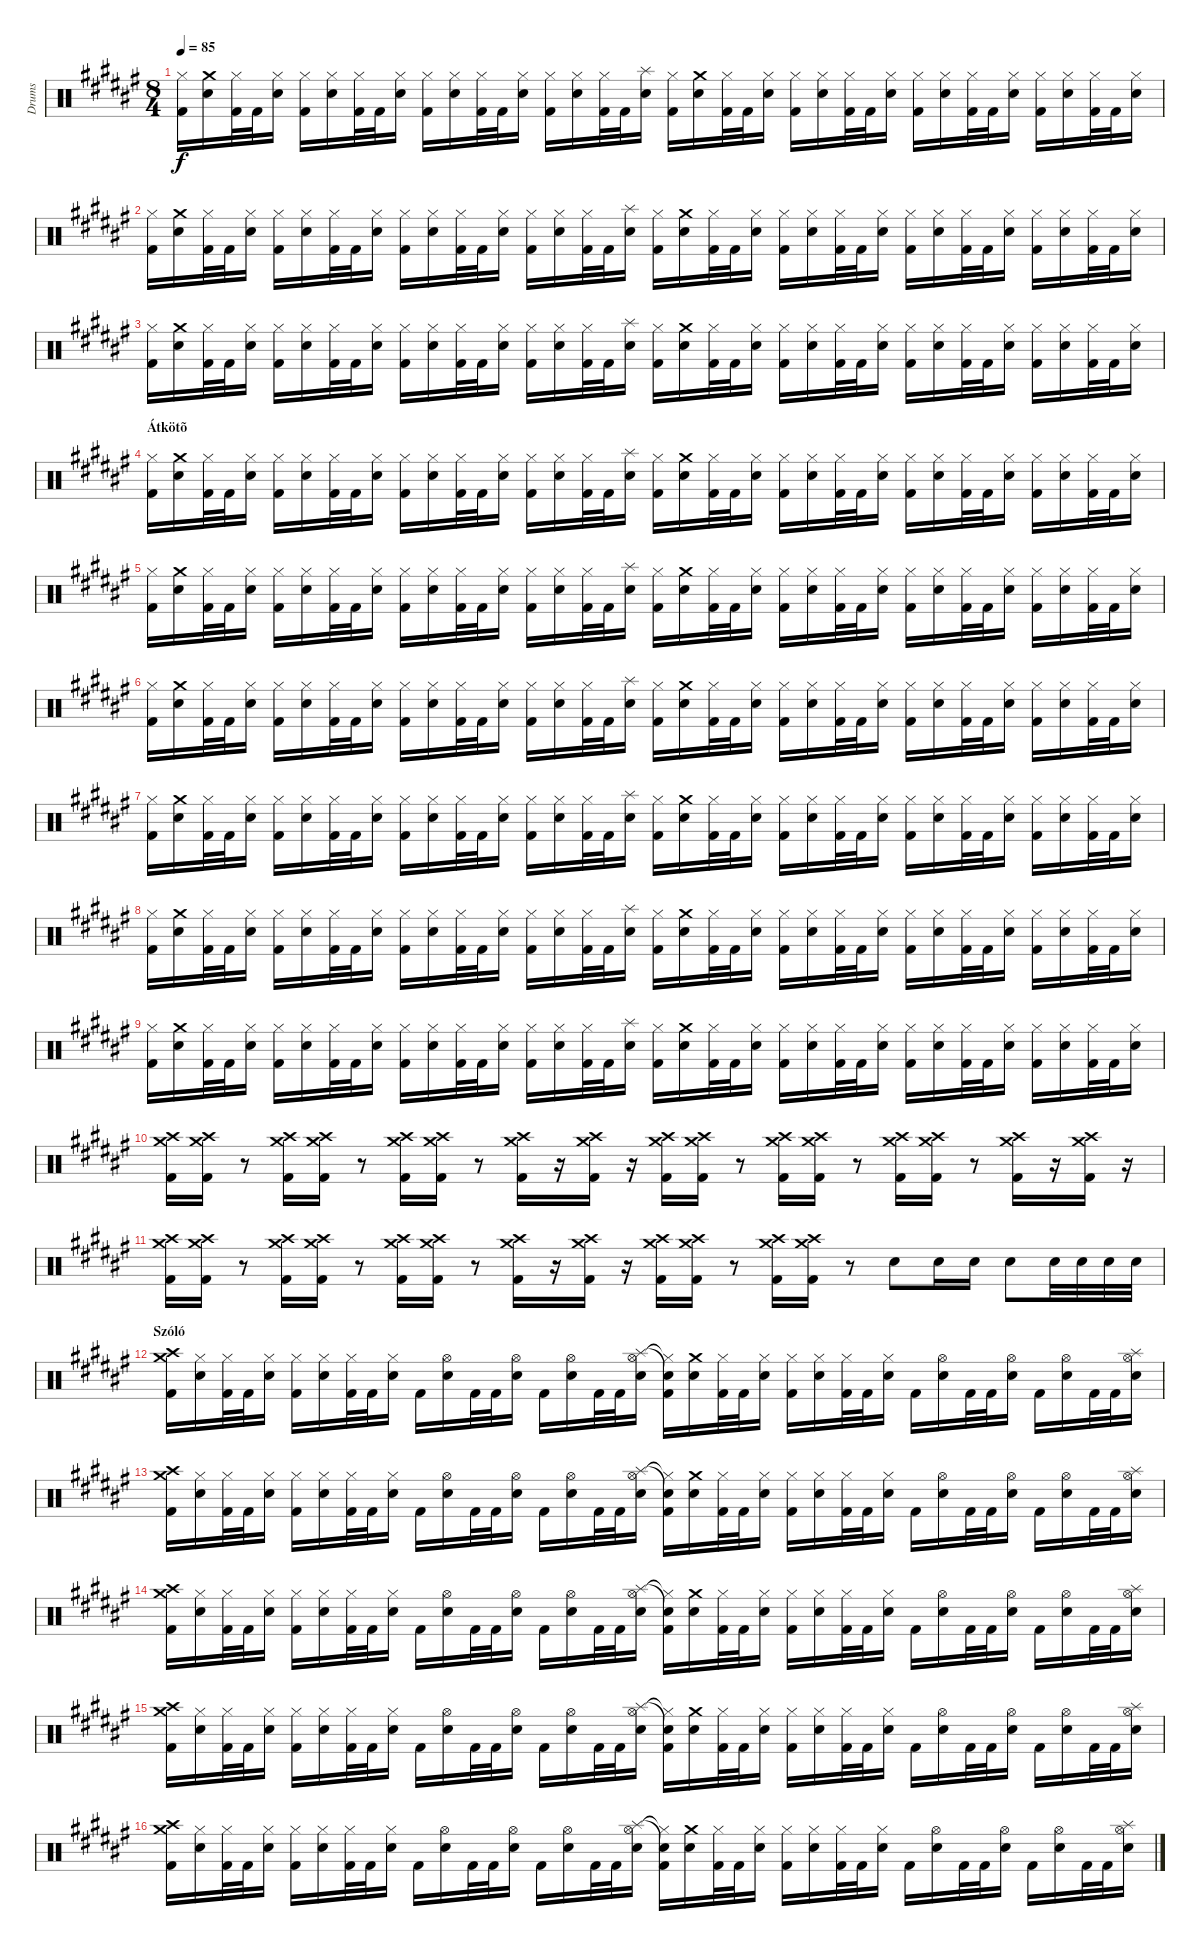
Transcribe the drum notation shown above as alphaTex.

\track ("Drums" "Drums") {instrument percussion}
\staff {score}
\articulation defaults
\ts (8 4)
\tempo 85
\clef neutral
\ks d#minor
("Hi-Hat (closed)" "Kick (hit) 2").16{dy f} ("Crash medium (hit)" "Snare (hit) 2").16 ("Hi-Hat (closed)" "Kick (hit) 2").32 "Kick (hit) 2".32 ("Hi-Hat (closed)" "Snare (hit) 2").16 ("Hi-Hat (closed)" "Kick (hit) 2").16 ("Hi-Hat (closed)" "Snare (hit) 2").16 ("Hi-Hat (closed)" "Kick (hit) 2").32 "Kick (hit) 2".32 ("Hi-Hat (closed)" "Snare (hit) 2").16 ("Hi-Hat (closed)" "Kick (hit) 2").16 ("Hi-Hat (closed)" "Snare (hit) 2").16 ("Hi-Hat (closed)" "Kick (hit) 2").32 "Kick (hit) 2".32 ("Hi-Hat (closed)" "Snare (hit) 2").16 ("Hi-Hat (closed)" "Kick (hit) 2").16 ("Hi-Hat (closed)" "Snare (hit) 2").16 ("Hi-Hat (closed)" "Kick (hit) 2").32 "Kick (hit) 2".32 ("Splash (hit)" "Snare (hit) 2").16 ("Hi-Hat (closed)" "Kick (hit) 2").16 ("Crash medium (hit)" "Snare (hit) 2").16 ("Hi-Hat (closed)" "Kick (hit) 2").32 "Kick (hit) 2".32 ("Hi-Hat (closed)" "Snare (hit) 2").16 ("Hi-Hat (closed)" "Kick (hit) 2").16 ("Hi-Hat (closed)" "Snare (hit) 2").16 ("Hi-Hat (closed)" "Kick (hit) 2").32 "Kick (hit) 2".32 ("Hi-Hat (closed)" "Snare (hit) 2").16 ("Hi-Hat (closed)" "Kick (hit) 2").16 ("Hi-Hat (closed)" "Snare (hit) 2").16 ("Hi-Hat (closed)" "Kick (hit) 2").32 "Kick (hit) 2".32 ("Hi-Hat (closed)" "Snare (hit) 2").16 ("Hi-Hat (closed)" "Kick (hit) 2").16 ("Hi-Hat (closed)" "Snare (hit) 2").16 ("Hi-Hat (closed)" "Kick (hit) 2").32 "Kick (hit) 2".32 ("Hi-Hat (closed)" "Snare (hit) 2").16 |
("Hi-Hat (closed)" "Kick (hit) 2").16 ("Crash medium (hit)" "Snare (hit) 2").16 ("Hi-Hat (closed)" "Kick (hit) 2").32 "Kick (hit) 2".32 ("Hi-Hat (closed)" "Snare (hit) 2").16 ("Hi-Hat (closed)" "Kick (hit) 2").16 ("Hi-Hat (closed)" "Snare (hit) 2").16 ("Hi-Hat (closed)" "Kick (hit) 2").32 "Kick (hit) 2".32 ("Hi-Hat (closed)" "Snare (hit) 2").16 ("Hi-Hat (closed)" "Kick (hit) 2").16 ("Hi-Hat (closed)" "Snare (hit) 2").16 ("Hi-Hat (closed)" "Kick (hit) 2").32 "Kick (hit) 2".32 ("Hi-Hat (closed)" "Snare (hit) 2").16 ("Hi-Hat (closed)" "Kick (hit) 2").16 ("Hi-Hat (closed)" "Snare (hit) 2").16 ("Hi-Hat (closed)" "Kick (hit) 2").32 "Kick (hit) 2".32 ("Splash (hit)" "Snare (hit) 2").16 ("Hi-Hat (closed)" "Kick (hit) 2").16 ("Crash medium (hit)" "Snare (hit) 2").16 ("Hi-Hat (closed)" "Kick (hit) 2").32 "Kick (hit) 2".32 ("Hi-Hat (closed)" "Snare (hit) 2").16 ("Hi-Hat (closed)" "Kick (hit) 2").16 ("Hi-Hat (closed)" "Snare (hit) 2").16 ("Hi-Hat (closed)" "Kick (hit) 2").32 "Kick (hit) 2".32 ("Hi-Hat (closed)" "Snare (hit) 2").16 ("Hi-Hat (closed)" "Kick (hit) 2").16 ("Hi-Hat (closed)" "Snare (hit) 2").16 ("Hi-Hat (closed)" "Kick (hit) 2").32 "Kick (hit) 2".32 ("Hi-Hat (closed)" "Snare (hit) 2").16 ("Hi-Hat (closed)" "Kick (hit) 2").16 ("Hi-Hat (closed)" "Snare (hit) 2").16 ("Hi-Hat (closed)" "Kick (hit) 2").32 "Kick (hit) 2".32 ("Hi-Hat (closed)" "Snare (hit) 2").16 |
("Hi-Hat (closed)" "Kick (hit) 2").16 ("Crash medium (hit)" "Snare (hit) 2").16 ("Hi-Hat (closed)" "Kick (hit) 2").32 "Kick (hit) 2".32 ("Hi-Hat (closed)" "Snare (hit) 2").16 ("Hi-Hat (closed)" "Kick (hit) 2").16 ("Hi-Hat (closed)" "Snare (hit) 2").16 ("Hi-Hat (closed)" "Kick (hit) 2").32 "Kick (hit) 2".32 ("Hi-Hat (closed)" "Snare (hit) 2").16 ("Hi-Hat (closed)" "Kick (hit) 2").16 ("Hi-Hat (closed)" "Snare (hit) 2").16 ("Hi-Hat (closed)" "Kick (hit) 2").32 "Kick (hit) 2".32 ("Hi-Hat (closed)" "Snare (hit) 2").16 ("Hi-Hat (closed)" "Kick (hit) 2").16 ("Hi-Hat (closed)" "Snare (hit) 2").16 ("Hi-Hat (closed)" "Kick (hit) 2").32 "Kick (hit) 2".32 ("Splash (hit)" "Snare (hit) 2").16 ("Hi-Hat (closed)" "Kick (hit) 2").16 ("Crash medium (hit)" "Snare (hit) 2").16 ("Hi-Hat (closed)" "Kick (hit) 2").32 "Kick (hit) 2".32 ("Hi-Hat (closed)" "Snare (hit) 2").16 ("Hi-Hat (closed)" "Kick (hit) 2").16 ("Hi-Hat (closed)" "Snare (hit) 2").16 ("Hi-Hat (closed)" "Kick (hit) 2").32 "Kick (hit) 2".32 ("Hi-Hat (closed)" "Snare (hit) 2").16 ("Hi-Hat (closed)" "Kick (hit) 2").16 ("Hi-Hat (closed)" "Snare (hit) 2").16 ("Hi-Hat (closed)" "Kick (hit) 2").32 "Kick (hit) 2".32 ("Hi-Hat (closed)" "Snare (hit) 2").16 ("Hi-Hat (closed)" "Kick (hit) 2").16 ("Hi-Hat (closed)" "Snare (hit) 2").16 ("Hi-Hat (closed)" "Kick (hit) 2").32 "Kick (hit) 2".32 ("Hi-Hat (closed)" "Snare (hit) 2").16 |
\section ("" "Átkötõ")
("Hi-Hat (closed)" "Kick (hit) 2").16 ("Crash medium (hit)" "Snare (hit) 2").16 ("Hi-Hat (closed)" "Kick (hit) 2").32 "Kick (hit) 2".32 ("Hi-Hat (closed)" "Snare (hit) 2").16 ("Hi-Hat (closed)" "Kick (hit) 2").16 ("Hi-Hat (closed)" "Snare (hit) 2").16 ("Hi-Hat (closed)" "Kick (hit) 2").32 "Kick (hit) 2".32 ("Hi-Hat (closed)" "Snare (hit) 2").16 ("Hi-Hat (closed)" "Kick (hit) 2").16 ("Hi-Hat (closed)" "Snare (hit) 2").16 ("Hi-Hat (closed)" "Kick (hit) 2").32 "Kick (hit) 2".32 ("Hi-Hat (closed)" "Snare (hit) 2").16 ("Hi-Hat (closed)" "Kick (hit) 2").16 ("Hi-Hat (closed)" "Snare (hit) 2").16 ("Hi-Hat (closed)" "Kick (hit) 2").32 "Kick (hit) 2".32 ("Splash (hit)" "Snare (hit) 2").16 ("Hi-Hat (closed)" "Kick (hit) 2").16 ("Crash medium (hit)" "Snare (hit) 2").16 ("Hi-Hat (closed)" "Kick (hit) 2").32 "Kick (hit) 2".32 ("Hi-Hat (closed)" "Snare (hit) 2").16 ("Hi-Hat (closed)" "Kick (hit) 2").16 ("Hi-Hat (closed)" "Snare (hit) 2").16 ("Hi-Hat (closed)" "Kick (hit) 2").32 "Kick (hit) 2".32 ("Hi-Hat (closed)" "Snare (hit) 2").16 ("Hi-Hat (closed)" "Kick (hit) 2").16 ("Hi-Hat (closed)" "Snare (hit) 2").16 ("Hi-Hat (closed)" "Kick (hit) 2").32 "Kick (hit) 2".32 ("Hi-Hat (closed)" "Snare (hit) 2").16 ("Hi-Hat (closed)" "Kick (hit) 2").16 ("Hi-Hat (closed)" "Snare (hit) 2").16 ("Hi-Hat (closed)" "Kick (hit) 2").32 "Kick (hit) 2".32 ("Hi-Hat (closed)" "Snare (hit) 2").16 |
("Hi-Hat (closed)" "Kick (hit) 2").16 ("Crash medium (hit)" "Snare (hit) 2").16 ("Hi-Hat (closed)" "Kick (hit) 2").32 "Kick (hit) 2".32 ("Hi-Hat (closed)" "Snare (hit) 2").16 ("Hi-Hat (closed)" "Kick (hit) 2").16 ("Hi-Hat (closed)" "Snare (hit) 2").16 ("Hi-Hat (closed)" "Kick (hit) 2").32 "Kick (hit) 2".32 ("Hi-Hat (closed)" "Snare (hit) 2").16 ("Hi-Hat (closed)" "Kick (hit) 2").16 ("Hi-Hat (closed)" "Snare (hit) 2").16 ("Hi-Hat (closed)" "Kick (hit) 2").32 "Kick (hit) 2".32 ("Hi-Hat (closed)" "Snare (hit) 2").16 ("Hi-Hat (closed)" "Kick (hit) 2").16 ("Hi-Hat (closed)" "Snare (hit) 2").16 ("Hi-Hat (closed)" "Kick (hit) 2").32 "Kick (hit) 2".32 ("Splash (hit)" "Snare (hit) 2").16 ("Hi-Hat (closed)" "Kick (hit) 2").16 ("Crash medium (hit)" "Snare (hit) 2").16 ("Hi-Hat (closed)" "Kick (hit) 2").32 "Kick (hit) 2".32 ("Hi-Hat (closed)" "Snare (hit) 2").16 ("Hi-Hat (closed)" "Kick (hit) 2").16 ("Hi-Hat (closed)" "Snare (hit) 2").16 ("Hi-Hat (closed)" "Kick (hit) 2").32 "Kick (hit) 2".32 ("Hi-Hat (closed)" "Snare (hit) 2").16 ("Hi-Hat (closed)" "Kick (hit) 2").16 ("Hi-Hat (closed)" "Snare (hit) 2").16 ("Hi-Hat (closed)" "Kick (hit) 2").32 "Kick (hit) 2".32 ("Hi-Hat (closed)" "Snare (hit) 2").16 ("Hi-Hat (closed)" "Kick (hit) 2").16 ("Hi-Hat (closed)" "Snare (hit) 2").16 ("Hi-Hat (closed)" "Kick (hit) 2").32 "Kick (hit) 2".32 ("Hi-Hat (closed)" "Snare (hit) 2").16 |
("Hi-Hat (closed)" "Kick (hit) 2").16 ("Crash medium (hit)" "Snare (hit) 2").16 ("Hi-Hat (closed)" "Kick (hit) 2").32 "Kick (hit) 2".32 ("Hi-Hat (closed)" "Snare (hit) 2").16 ("Hi-Hat (closed)" "Kick (hit) 2").16 ("Hi-Hat (closed)" "Snare (hit) 2").16 ("Hi-Hat (closed)" "Kick (hit) 2").32 "Kick (hit) 2".32 ("Hi-Hat (closed)" "Snare (hit) 2").16 ("Hi-Hat (closed)" "Kick (hit) 2").16 ("Hi-Hat (closed)" "Snare (hit) 2").16 ("Hi-Hat (closed)" "Kick (hit) 2").32 "Kick (hit) 2".32 ("Hi-Hat (closed)" "Snare (hit) 2").16 ("Hi-Hat (closed)" "Kick (hit) 2").16 ("Hi-Hat (closed)" "Snare (hit) 2").16 ("Hi-Hat (closed)" "Kick (hit) 2").32 "Kick (hit) 2".32 ("Splash (hit)" "Snare (hit) 2").16 ("Hi-Hat (closed)" "Kick (hit) 2").16 ("Crash medium (hit)" "Snare (hit) 2").16 ("Hi-Hat (closed)" "Kick (hit) 2").32 "Kick (hit) 2".32 ("Hi-Hat (closed)" "Snare (hit) 2").16 ("Hi-Hat (closed)" "Kick (hit) 2").16 ("Hi-Hat (closed)" "Snare (hit) 2").16 ("Hi-Hat (closed)" "Kick (hit) 2").32 "Kick (hit) 2".32 ("Hi-Hat (closed)" "Snare (hit) 2").16 ("Hi-Hat (closed)" "Kick (hit) 2").16 ("Hi-Hat (closed)" "Snare (hit) 2").16 ("Hi-Hat (closed)" "Kick (hit) 2").32 "Kick (hit) 2".32 ("Hi-Hat (closed)" "Snare (hit) 2").16 ("Hi-Hat (closed)" "Kick (hit) 2").16 ("Hi-Hat (closed)" "Snare (hit) 2").16 ("Hi-Hat (closed)" "Kick (hit) 2").32 "Kick (hit) 2".32 ("Hi-Hat (closed)" "Snare (hit) 2").16 |
("Hi-Hat (closed)" "Kick (hit) 2").16 ("Crash medium (hit)" "Snare (hit) 2").16 ("Hi-Hat (closed)" "Kick (hit) 2").32 "Kick (hit) 2".32 ("Hi-Hat (closed)" "Snare (hit) 2").16 ("Hi-Hat (closed)" "Kick (hit) 2").16 ("Hi-Hat (closed)" "Snare (hit) 2").16 ("Hi-Hat (closed)" "Kick (hit) 2").32 "Kick (hit) 2".32 ("Hi-Hat (closed)" "Snare (hit) 2").16 ("Hi-Hat (closed)" "Kick (hit) 2").16 ("Hi-Hat (closed)" "Snare (hit) 2").16 ("Hi-Hat (closed)" "Kick (hit) 2").32 "Kick (hit) 2".32 ("Hi-Hat (closed)" "Snare (hit) 2").16 ("Hi-Hat (closed)" "Kick (hit) 2").16 ("Hi-Hat (closed)" "Snare (hit) 2").16 ("Hi-Hat (closed)" "Kick (hit) 2").32 "Kick (hit) 2".32 ("Splash (hit)" "Snare (hit) 2").16 ("Hi-Hat (closed)" "Kick (hit) 2").16 ("Crash medium (hit)" "Snare (hit) 2").16 ("Hi-Hat (closed)" "Kick (hit) 2").32 "Kick (hit) 2".32 ("Hi-Hat (closed)" "Snare (hit) 2").16 ("Hi-Hat (closed)" "Kick (hit) 2").16 ("Hi-Hat (closed)" "Snare (hit) 2").16 ("Hi-Hat (closed)" "Kick (hit) 2").32 "Kick (hit) 2".32 ("Hi-Hat (closed)" "Snare (hit) 2").16 ("Hi-Hat (closed)" "Kick (hit) 2").16 ("Hi-Hat (closed)" "Snare (hit) 2").16 ("Hi-Hat (closed)" "Kick (hit) 2").32 "Kick (hit) 2".32 ("Hi-Hat (closed)" "Snare (hit) 2").16 ("Hi-Hat (closed)" "Kick (hit) 2").16 ("Hi-Hat (closed)" "Snare (hit) 2").16 ("Hi-Hat (closed)" "Kick (hit) 2").32 "Kick (hit) 2".32 ("Hi-Hat (closed)" "Snare (hit) 2").16 |
("Hi-Hat (closed)" "Kick (hit) 2").16 ("Crash medium (hit)" "Snare (hit) 2").16 ("Hi-Hat (closed)" "Kick (hit) 2").32 "Kick (hit) 2".32 ("Hi-Hat (closed)" "Snare (hit) 2").16 ("Hi-Hat (closed)" "Kick (hit) 2").16 ("Hi-Hat (closed)" "Snare (hit) 2").16 ("Hi-Hat (closed)" "Kick (hit) 2").32 "Kick (hit) 2".32 ("Hi-Hat (closed)" "Snare (hit) 2").16 ("Hi-Hat (closed)" "Kick (hit) 2").16 ("Hi-Hat (closed)" "Snare (hit) 2").16 ("Hi-Hat (closed)" "Kick (hit) 2").32 "Kick (hit) 2".32 ("Hi-Hat (closed)" "Snare (hit) 2").16 ("Hi-Hat (closed)" "Kick (hit) 2").16 ("Hi-Hat (closed)" "Snare (hit) 2").16 ("Hi-Hat (closed)" "Kick (hit) 2").32 "Kick (hit) 2".32 ("Splash (hit)" "Snare (hit) 2").16 ("Hi-Hat (closed)" "Kick (hit) 2").16 ("Crash medium (hit)" "Snare (hit) 2").16 ("Hi-Hat (closed)" "Kick (hit) 2").32 "Kick (hit) 2".32 ("Hi-Hat (closed)" "Snare (hit) 2").16 ("Hi-Hat (closed)" "Kick (hit) 2").16 ("Hi-Hat (closed)" "Snare (hit) 2").16 ("Hi-Hat (closed)" "Kick (hit) 2").32 "Kick (hit) 2".32 ("Hi-Hat (closed)" "Snare (hit) 2").16 ("Hi-Hat (closed)" "Kick (hit) 2").16 ("Hi-Hat (closed)" "Snare (hit) 2").16 ("Hi-Hat (closed)" "Kick (hit) 2").32 "Kick (hit) 2".32 ("Hi-Hat (closed)" "Snare (hit) 2").16 ("Hi-Hat (closed)" "Kick (hit) 2").16 ("Hi-Hat (closed)" "Snare (hit) 2").16 ("Hi-Hat (closed)" "Kick (hit) 2").32 "Kick (hit) 2".32 ("Hi-Hat (closed)" "Snare (hit) 2").16 |
("Hi-Hat (closed)" "Kick (hit) 2").16 ("Crash medium (hit)" "Snare (hit) 2").16 ("Hi-Hat (closed)" "Kick (hit) 2").32 "Kick (hit) 2".32 ("Hi-Hat (closed)" "Snare (hit) 2").16 ("Hi-Hat (closed)" "Kick (hit) 2").16 ("Hi-Hat (closed)" "Snare (hit) 2").16 ("Hi-Hat (closed)" "Kick (hit) 2").32 "Kick (hit) 2".32 ("Hi-Hat (closed)" "Snare (hit) 2").16 ("Hi-Hat (closed)" "Kick (hit) 2").16 ("Hi-Hat (closed)" "Snare (hit) 2").16 ("Hi-Hat (closed)" "Kick (hit) 2").32 "Kick (hit) 2".32 ("Hi-Hat (closed)" "Snare (hit) 2").16 ("Hi-Hat (closed)" "Kick (hit) 2").16 ("Hi-Hat (closed)" "Snare (hit) 2").16 ("Hi-Hat (closed)" "Kick (hit) 2").32 "Kick (hit) 2".32 ("Splash (hit)" "Snare (hit) 2").16 ("Hi-Hat (closed)" "Kick (hit) 2").16 ("Crash medium (hit)" "Snare (hit) 2").16 ("Hi-Hat (closed)" "Kick (hit) 2").32 "Kick (hit) 2".32 ("Hi-Hat (closed)" "Snare (hit) 2").16 ("Hi-Hat (closed)" "Kick (hit) 2").16 ("Hi-Hat (closed)" "Snare (hit) 2").16 ("Hi-Hat (closed)" "Kick (hit) 2").32 "Kick (hit) 2".32 ("Hi-Hat (closed)" "Snare (hit) 2").16 ("Hi-Hat (closed)" "Kick (hit) 2").16 ("Hi-Hat (closed)" "Snare (hit) 2").16 ("Hi-Hat (closed)" "Kick (hit) 2").32 "Kick (hit) 2".32 ("Hi-Hat (closed)" "Snare (hit) 2").16 ("Hi-Hat (closed)" "Kick (hit) 2").16 ("Hi-Hat (closed)" "Snare (hit) 2").16 ("Hi-Hat (closed)" "Kick (hit) 2").32 "Kick (hit) 2".32 ("Hi-Hat (closed)" "Snare (hit) 2").16 |
("Crash medium (hit)" "Crash high (hit)" "Kick (hit) 2").16 ("Crash medium (hit)" "Crash high (hit)" "Kick (hit) 2").16 r.8 ("Crash medium (hit)" "Crash high (hit)" "Kick (hit) 2").16 ("Crash medium (hit)" "Crash high (hit)" "Kick (hit) 2").16 r.8 ("Crash medium (hit)" "Crash high (hit)" "Kick (hit) 2").16 ("Crash medium (hit)" "Crash high (hit)" "Kick (hit) 2").16 r.8 ("Crash medium (hit)" "Crash high (hit)" "Kick (hit) 2").16 r.16 ("Crash medium (hit)" "Crash high (hit)" "Kick (hit) 2").16 r.16 ("Crash medium (hit)" "Crash high (hit)" "Kick (hit) 2").16 ("Crash medium (hit)" "Crash high (hit)" "Kick (hit) 2").16 r.8 ("Crash medium (hit)" "Crash high (hit)" "Kick (hit) 2").16 ("Crash medium (hit)" "Crash high (hit)" "Kick (hit) 2").16 r.8 ("Crash medium (hit)" "Crash high (hit)" "Kick (hit) 2").16 ("Crash medium (hit)" "Crash high (hit)" "Kick (hit) 2").16 r.8 ("Crash medium (hit)" "Crash high (hit)" "Kick (hit) 2").16 r.16 ("Crash medium (hit)" "Crash high (hit)" "Kick (hit) 2").16 r.16 |
("Crash medium (hit)" "Crash high (hit)" "Kick (hit) 2").16 ("Crash medium (hit)" "Crash high (hit)" "Kick (hit) 2").16 r.8 ("Crash medium (hit)" "Crash high (hit)" "Kick (hit) 2").16 ("Crash medium (hit)" "Crash high (hit)" "Kick (hit) 2").16 r.8 ("Crash medium (hit)" "Crash high (hit)" "Kick (hit) 2").16 ("Crash medium (hit)" "Crash high (hit)" "Kick (hit) 2").16 r.8 ("Crash medium (hit)" "Crash high (hit)" "Kick (hit) 2").16 r.16 ("Crash medium (hit)" "Crash high (hit)" "Kick (hit) 2").16 r.16 ("Crash medium (hit)" "Crash high (hit)" "Kick (hit) 2").16 ("Crash medium (hit)" "Crash high (hit)" "Kick (hit) 2").16 r.8 ("Crash medium (hit)" "Crash high (hit)" "Kick (hit) 2").16 ("Crash medium (hit)" "Crash high (hit)" "Kick (hit) 2").16 r.8 "Snare (hit) 2".8 "Snare (hit) 2".16 "Snare (hit) 2".16 "Snare (hit) 2".8 "Snare (hit) 2".32 "Snare (hit) 2".32 "Snare (hit) 2".32 "Snare (hit) 2".32 |
\section ("" "Szóló")
("Crash medium (hit)" "Crash high (hit)" "Kick (hit) 2").16 ("Hi-Hat (closed)" "Snare (hit) 2").16 ("Hi-Hat (closed)" "Kick (hit) 2").32 "Kick (hit) 2".32 ("Hi-Hat (closed)" "Snare (hit) 2").16 ("Hi-Hat (closed)" "Kick (hit) 2").16 ("Hi-Hat (closed)" "Snare (hit) 2").16 ("Hi-Hat (closed)" "Kick (hit) 2").32 "Kick (hit) 2".32 ("Hi-Hat (closed)" "Snare (hit) 2").16 "Kick (hit) 2".16 ("Hi-Hat (open)" "Snare (hit) 2").16 "Kick (hit) 2".32 "Kick (hit) 2".32 ("Hi-Hat (open)" "Snare (hit) 2").16 "Kick (hit) 2".16 ("Hi-Hat (open)" "Snare (hit) 2").16 "Kick (hit) 2".32 "Kick (hit) 2".32 ("Hi-Hat (open)" "Splash (hit)" "Snare (hit) 2").16 ("Hi-Hat (closed)"{t} "Snare (hit)"{t} "Kick (hit) 2").16 ("Crash medium (hit)" "Snare (hit) 2").16 ("Hi-Hat (closed)" "Kick (hit) 2").32 "Kick (hit) 2".32 ("Hi-Hat (closed)" "Snare (hit) 2").16 ("Hi-Hat (closed)" "Kick (hit) 2").16 ("Hi-Hat (closed)" "Snare (hit) 2").16 ("Hi-Hat (closed)" "Kick (hit) 2").32 "Kick (hit) 2".32 ("Hi-Hat (closed)" "Snare (hit) 2").16 "Kick (hit) 2".16 ("Hi-Hat (open)" "Snare (hit) 2").16 "Kick (hit) 2".32 "Kick (hit) 2".32 ("Hi-Hat (open)" "Snare (hit) 2").16 "Kick (hit) 2".16 ("Hi-Hat (open)" "Snare (hit) 2").16 "Kick (hit) 2".32 "Kick (hit) 2".32 ("Hi-Hat (open)" "Splash (hit)" "Snare (hit) 2").16 |
("Crash medium (hit)" "Crash high (hit)" "Kick (hit) 2").16 ("Hi-Hat (closed)" "Snare (hit) 2").16 ("Hi-Hat (closed)" "Kick (hit) 2").32 "Kick (hit) 2".32 ("Hi-Hat (closed)" "Snare (hit) 2").16 ("Hi-Hat (closed)" "Kick (hit) 2").16 ("Hi-Hat (closed)" "Snare (hit) 2").16 ("Hi-Hat (closed)" "Kick (hit) 2").32 "Kick (hit) 2".32 ("Hi-Hat (closed)" "Snare (hit) 2").16 "Kick (hit) 2".16 ("Hi-Hat (open)" "Snare (hit) 2").16 "Kick (hit) 2".32 "Kick (hit) 2".32 ("Hi-Hat (open)" "Snare (hit) 2").16 "Kick (hit) 2".16 ("Hi-Hat (open)" "Snare (hit) 2").16 "Kick (hit) 2".32 "Kick (hit) 2".32 ("Hi-Hat (open)" "Splash (hit)" "Snare (hit) 2").16 ("Hi-Hat (closed)"{t} "Snare (hit)"{t} "Kick (hit) 2").16 ("Crash medium (hit)" "Snare (hit) 2").16 ("Hi-Hat (closed)" "Kick (hit) 2").32 "Kick (hit) 2".32 ("Hi-Hat (closed)" "Snare (hit) 2").16 ("Hi-Hat (closed)" "Kick (hit) 2").16 ("Hi-Hat (closed)" "Snare (hit) 2").16 ("Hi-Hat (closed)" "Kick (hit) 2").32 "Kick (hit) 2".32 ("Hi-Hat (closed)" "Snare (hit) 2").16 "Kick (hit) 2".16 ("Hi-Hat (open)" "Snare (hit) 2").16 "Kick (hit) 2".32 "Kick (hit) 2".32 ("Hi-Hat (open)" "Snare (hit) 2").16 "Kick (hit) 2".16 ("Hi-Hat (open)" "Snare (hit) 2").16 "Kick (hit) 2".32 "Kick (hit) 2".32 ("Hi-Hat (open)" "Splash (hit)" "Snare (hit) 2").16 |
("Crash medium (hit)" "Crash high (hit)" "Kick (hit) 2").16 ("Hi-Hat (closed)" "Snare (hit) 2").16 ("Hi-Hat (closed)" "Kick (hit) 2").32 "Kick (hit) 2".32 ("Hi-Hat (closed)" "Snare (hit) 2").16 ("Hi-Hat (closed)" "Kick (hit) 2").16 ("Hi-Hat (closed)" "Snare (hit) 2").16 ("Hi-Hat (closed)" "Kick (hit) 2").32 "Kick (hit) 2".32 ("Hi-Hat (closed)" "Snare (hit) 2").16 "Kick (hit) 2".16 ("Hi-Hat (open)" "Snare (hit) 2").16 "Kick (hit) 2".32 "Kick (hit) 2".32 ("Hi-Hat (open)" "Snare (hit) 2").16 "Kick (hit) 2".16 ("Hi-Hat (open)" "Snare (hit) 2").16 "Kick (hit) 2".32 "Kick (hit) 2".32 ("Hi-Hat (open)" "Splash (hit)" "Snare (hit) 2").16 ("Hi-Hat (closed)"{t} "Snare (hit)"{t} "Kick (hit) 2").16 ("Crash medium (hit)" "Snare (hit) 2").16 ("Hi-Hat (closed)" "Kick (hit) 2").32 "Kick (hit) 2".32 ("Hi-Hat (closed)" "Snare (hit) 2").16 ("Hi-Hat (closed)" "Kick (hit) 2").16 ("Hi-Hat (closed)" "Snare (hit) 2").16 ("Hi-Hat (closed)" "Kick (hit) 2").32 "Kick (hit) 2".32 ("Hi-Hat (closed)" "Snare (hit) 2").16 "Kick (hit) 2".16 ("Hi-Hat (open)" "Snare (hit) 2").16 "Kick (hit) 2".32 "Kick (hit) 2".32 ("Hi-Hat (open)" "Snare (hit) 2").16 "Kick (hit) 2".16 ("Hi-Hat (open)" "Snare (hit) 2").16 "Kick (hit) 2".32 "Kick (hit) 2".32 ("Hi-Hat (open)" "Splash (hit)" "Snare (hit) 2").16 |
("Crash medium (hit)" "Crash high (hit)" "Kick (hit) 2").16 ("Hi-Hat (closed)" "Snare (hit) 2").16 ("Hi-Hat (closed)" "Kick (hit) 2").32 "Kick (hit) 2".32 ("Hi-Hat (closed)" "Snare (hit) 2").16 ("Hi-Hat (closed)" "Kick (hit) 2").16 ("Hi-Hat (closed)" "Snare (hit) 2").16 ("Hi-Hat (closed)" "Kick (hit) 2").32 "Kick (hit) 2".32 ("Hi-Hat (closed)" "Snare (hit) 2").16 "Kick (hit) 2".16 ("Hi-Hat (open)" "Snare (hit) 2").16 "Kick (hit) 2".32 "Kick (hit) 2".32 ("Hi-Hat (open)" "Snare (hit) 2").16 "Kick (hit) 2".16 ("Hi-Hat (open)" "Snare (hit) 2").16 "Kick (hit) 2".32 "Kick (hit) 2".32 ("Hi-Hat (open)" "Splash (hit)" "Snare (hit) 2").16 ("Hi-Hat (closed)"{t} "Snare (hit)"{t} "Kick (hit) 2").16 ("Crash medium (hit)" "Snare (hit) 2").16 ("Hi-Hat (closed)" "Kick (hit) 2").32 "Kick (hit) 2".32 ("Hi-Hat (closed)" "Snare (hit) 2").16 ("Hi-Hat (closed)" "Kick (hit) 2").16 ("Hi-Hat (closed)" "Snare (hit) 2").16 ("Hi-Hat (closed)" "Kick (hit) 2").32 "Kick (hit) 2".32 ("Hi-Hat (closed)" "Snare (hit) 2").16 "Kick (hit) 2".16 ("Hi-Hat (open)" "Snare (hit) 2").16 "Kick (hit) 2".32 "Kick (hit) 2".32 ("Hi-Hat (open)" "Snare (hit) 2").16 "Kick (hit) 2".16 ("Hi-Hat (open)" "Snare (hit) 2").16 "Kick (hit) 2".32 "Kick (hit) 2".32 ("Hi-Hat (open)" "Splash (hit)" "Snare (hit) 2").16 |
("Crash medium (hit)" "Crash high (hit)" "Kick (hit) 2").16 ("Hi-Hat (closed)" "Snare (hit) 2").16 ("Hi-Hat (closed)" "Kick (hit) 2").32 "Kick (hit) 2".32 ("Hi-Hat (closed)" "Snare (hit) 2").16 ("Hi-Hat (closed)" "Kick (hit) 2").16 ("Hi-Hat (closed)" "Snare (hit) 2").16 ("Hi-Hat (closed)" "Kick (hit) 2").32 "Kick (hit) 2".32 ("Hi-Hat (closed)" "Snare (hit) 2").16 "Kick (hit) 2".16 ("Hi-Hat (open)" "Snare (hit) 2").16 "Kick (hit) 2".32 "Kick (hit) 2".32 ("Hi-Hat (open)" "Snare (hit) 2").16 "Kick (hit) 2".16 ("Hi-Hat (open)" "Snare (hit) 2").16 "Kick (hit) 2".32 "Kick (hit) 2".32 ("Hi-Hat (open)" "Splash (hit)" "Snare (hit) 2").16 ("Hi-Hat (closed)"{t} "Snare (hit)"{t} "Kick (hit) 2").16 ("Crash medium (hit)" "Snare (hit) 2").16 ("Hi-Hat (closed)" "Kick (hit) 2").32 "Kick (hit) 2".32 ("Hi-Hat (closed)" "Snare (hit) 2").16 ("Hi-Hat (closed)" "Kick (hit) 2").16 ("Hi-Hat (closed)" "Snare (hit) 2").16 ("Hi-Hat (closed)" "Kick (hit) 2").32 "Kick (hit) 2".32 ("Hi-Hat (closed)" "Snare (hit) 2").16 "Kick (hit) 2".16 ("Hi-Hat (open)" "Snare (hit) 2").16 "Kick (hit) 2".32 "Kick (hit) 2".32 ("Hi-Hat (open)" "Snare (hit) 2").16 "Kick (hit) 2".16 ("Hi-Hat (open)" "Snare (hit) 2").16 "Kick (hit) 2".32 "Kick (hit) 2".32 ("Hi-Hat (open)" "Splash (hit)" "Snare (hit) 2").16
